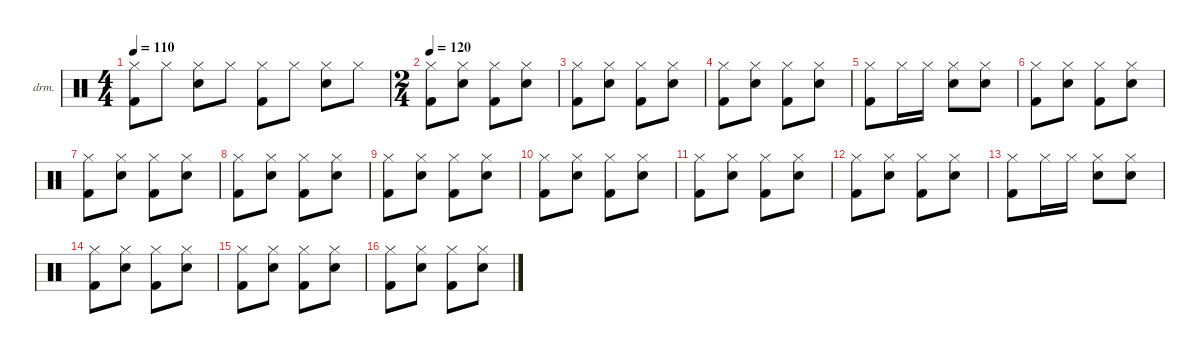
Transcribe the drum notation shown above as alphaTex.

\hideDynamics
\bracketExtendMode nobrackets
\firstSystemTrackNameOrientation horizontal
\otherSystemsTrackNameOrientation horizontal
\track ("韩子钰" "drm.") {instrument percussion}
\staff {score}
\articulation defaults
\ts (4 4)
\tempo 110
\clef neutral
\ks c
("Hi-Hat (closed)" "Kick (hit) 2").8{dy f} "Hi-Hat (closed)".8 ("Hi-Hat (closed)" "Snare (hit) 2").8 "Hi-Hat (closed)".8 ("Hi-Hat (closed)" "Kick (hit) 2").8 "Hi-Hat (closed)".8 ("Hi-Hat (closed)" "Snare (hit) 2").8 "Hi-Hat (closed)".8 |
\ts (2 4)
\beaming (8 2 2)
\tempo 120
("Hi-Hat (closed)" "Kick (hit) 2").8 ("Hi-Hat (closed)" "Snare (hit) 2").8 ("Hi-Hat (closed)" "Kick (hit) 2").8 ("Hi-Hat (closed)" "Snare (hit) 2").8 |
("Hi-Hat (closed)" "Kick (hit) 2").8 ("Hi-Hat (closed)" "Snare (hit) 2").8 ("Hi-Hat (closed)" "Kick (hit) 2").8 ("Hi-Hat (closed)" "Snare (hit) 2").8 |
("Hi-Hat (closed)" "Kick (hit) 2").8 ("Hi-Hat (closed)" "Snare (hit) 2").8 ("Hi-Hat (closed)" "Kick (hit) 2").8 ("Hi-Hat (closed)" "Snare (hit) 2").8 |
("Hi-Hat (closed)" "Kick (hit) 2").8 "Hi-Hat (closed)".16 "Hi-Hat (closed)".16 ("Hi-Hat (closed)" "Snare (hit) 2").8 ("Hi-Hat (closed)" "Snare (hit) 2").8 |
("Hi-Hat (closed)" "Kick (hit) 2").8 ("Hi-Hat (closed)" "Snare (hit) 2").8 ("Hi-Hat (closed)" "Kick (hit) 2").8 ("Hi-Hat (closed)" "Snare (hit) 2").8 |
("Hi-Hat (closed)" "Kick (hit) 2").8 ("Hi-Hat (closed)" "Snare (hit) 2").8 ("Hi-Hat (closed)" "Kick (hit) 2").8 ("Hi-Hat (closed)" "Snare (hit) 2").8 |
("Hi-Hat (closed)" "Kick (hit) 2").8 ("Hi-Hat (closed)" "Snare (hit) 2").8 ("Hi-Hat (closed)" "Kick (hit) 2").8 ("Hi-Hat (closed)" "Snare (hit) 2").8 |
("Hi-Hat (closed)" "Kick (hit) 2").8 ("Hi-Hat (closed)" "Snare (hit) 2").8 ("Hi-Hat (closed)" "Kick (hit) 2").8 ("Hi-Hat (closed)" "Snare (hit) 2").8 |
("Hi-Hat (closed)" "Kick (hit) 2").8 ("Hi-Hat (closed)" "Snare (hit) 2").8 ("Hi-Hat (closed)" "Kick (hit) 2").8 ("Hi-Hat (closed)" "Snare (hit) 2").8 |
("Hi-Hat (closed)" "Kick (hit) 2").8 ("Hi-Hat (closed)" "Snare (hit) 2").8 ("Hi-Hat (closed)" "Kick (hit) 2").8 ("Hi-Hat (closed)" "Snare (hit) 2").8 |
("Hi-Hat (closed)" "Kick (hit) 2").8 ("Hi-Hat (closed)" "Snare (hit) 2").8 ("Hi-Hat (closed)" "Kick (hit) 2").8 ("Hi-Hat (closed)" "Snare (hit) 2").8 |
("Hi-Hat (closed)" "Kick (hit) 2").8 "Hi-Hat (closed)".16 "Hi-Hat (closed)".16 ("Hi-Hat (closed)" "Snare (hit) 2").8 ("Hi-Hat (closed)" "Snare (hit) 2").8 |
("Hi-Hat (closed)" "Kick (hit) 2").8 ("Hi-Hat (closed)" "Snare (hit) 2").8 ("Hi-Hat (closed)" "Kick (hit) 2").8 ("Hi-Hat (closed)" "Snare (hit) 2").8 |
("Hi-Hat (closed)" "Kick (hit) 2").8 ("Hi-Hat (closed)" "Snare (hit) 2").8 ("Hi-Hat (closed)" "Kick (hit) 2").8 ("Hi-Hat (closed)" "Snare (hit) 2").8 |
("Hi-Hat (closed)" "Kick (hit) 2").8 ("Hi-Hat (closed)" "Snare (hit) 2").8 ("Hi-Hat (closed)" "Kick (hit) 2").8 ("Hi-Hat (closed)" "Snare (hit) 2").8
